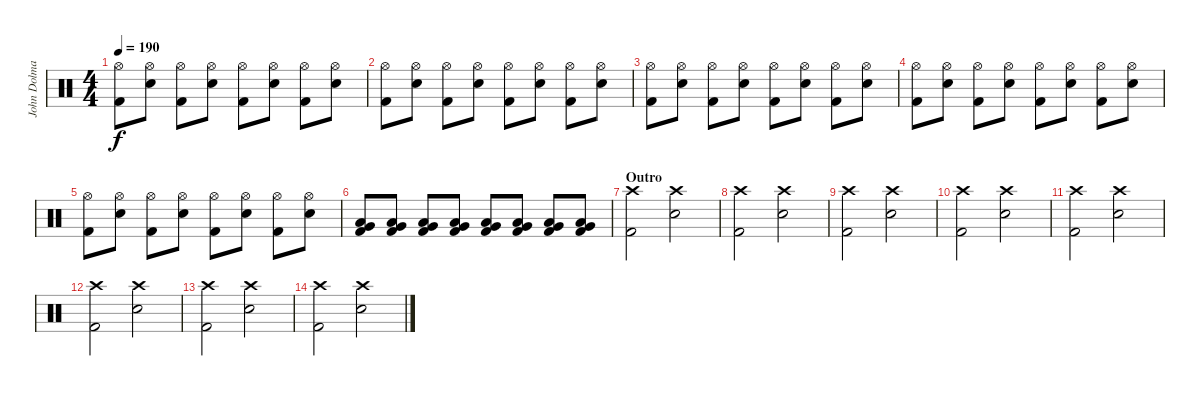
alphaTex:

\track ("John Dolmayan" "John Dolma") {instrument percussion}
\staff {score}
\articulation defaults
\ts (4 4)
\tempo 190
\clef neutral
\ks c
("Hi-Hat (open)" "Kick (hit) 2").8{dy f} ("Hi-Hat (open)" "Electric Snare (hit)").8 ("Hi-Hat (open)" "Kick (hit) 2").8 ("Hi-Hat (open)" "Electric Snare (hit)").8 ("Hi-Hat (open)" "Kick (hit) 2").8 ("Hi-Hat (open)" "Electric Snare (hit)").8 ("Hi-Hat (open)" "Kick (hit) 2").8 ("Hi-Hat (open)" "Electric Snare (hit)").8 |
("Hi-Hat (open)" "Kick (hit) 2").8 ("Hi-Hat (open)" "Electric Snare (hit)").8 ("Hi-Hat (open)" "Kick (hit) 2").8 ("Hi-Hat (open)" "Electric Snare (hit)").8 ("Hi-Hat (open)" "Kick (hit) 2").8 ("Hi-Hat (open)" "Electric Snare (hit)").8 ("Hi-Hat (open)" "Kick (hit) 2").8 ("Hi-Hat (open)" "Electric Snare (hit)").8 |
("Hi-Hat (open)" "Kick (hit) 2").8 ("Hi-Hat (open)" "Electric Snare (hit)").8 ("Hi-Hat (open)" "Kick (hit) 2").8 ("Hi-Hat (open)" "Electric Snare (hit)").8 ("Hi-Hat (open)" "Kick (hit) 2").8 ("Hi-Hat (open)" "Electric Snare (hit)").8 ("Hi-Hat (open)" "Kick (hit) 2").8 ("Hi-Hat (open)" "Electric Snare (hit)").8 |
("Hi-Hat (open)" "Kick (hit) 2").8 ("Hi-Hat (open)" "Electric Snare (hit)").8 ("Hi-Hat (open)" "Kick (hit) 2").8 ("Hi-Hat (open)" "Electric Snare (hit)").8 ("Hi-Hat (open)" "Kick (hit) 2").8 ("Hi-Hat (open)" "Electric Snare (hit)").8 ("Hi-Hat (open)" "Kick (hit) 2").8 ("Hi-Hat (open)" "Electric Snare (hit)").8 |
("Hi-Hat (open)" "Kick (hit) 2").8 ("Hi-Hat (open)" "Electric Snare (hit)").8 ("Hi-Hat (open)" "Kick (hit) 2").8 ("Hi-Hat (open)" "Electric Snare (hit)").8 ("Hi-Hat (open)" "Kick (hit) 2").8 ("Hi-Hat (open)" "Electric Snare (hit)").8 ("Hi-Hat (open)" "Kick (hit) 2").8 ("Hi-Hat (open)" "Electric Snare (hit)").8 |
("Very Low Tom (hit)" "Low Tom (hit)" "Kick (hit) 2").8 ("Very Low Tom (hit)" "Low Tom (hit)" "Kick (hit) 2").8 ("Very Low Tom (hit)" "Low Tom (hit)" "Kick (hit) 2").8 ("Very Low Tom (hit)" "Low Tom (hit)" "Kick (hit) 2").8 ("Very Low Tom (hit)" "Low Tom (hit)" "Kick (hit) 2").8 ("Very Low Tom (hit)" "Low Tom (hit)" "Kick (hit) 2").8 ("Very Low Tom (hit)" "Low Tom (hit)" "Kick (hit) 2").8 ("Very Low Tom (hit)" "Low Tom (hit)" "Kick (hit) 2").8 |
\section ("" "Outro")
("Crash high (hit)" "Kick (hit) 2").2 ("Crash high (hit)" "Electric Snare (hit)").2 |
("Crash high (hit)" "Kick (hit) 2").2 ("Crash high (hit)" "Electric Snare (hit)").2 |
("Crash high (hit)" "Kick (hit) 2").2 ("Crash high (hit)" "Electric Snare (hit)").2 |
("Crash high (hit)" "Kick (hit) 2").2 ("Crash high (hit)" "Electric Snare (hit)").2 |
("Crash high (hit)" "Kick (hit) 2").2 ("Crash high (hit)" "Electric Snare (hit)").2 |
("Crash high (hit)" "Kick (hit) 2").2 ("Crash high (hit)" "Electric Snare (hit)").2 |
("Crash high (hit)" "Kick (hit) 2").2 ("Crash high (hit)" "Electric Snare (hit)").2 |
("Crash high (hit)" "Kick (hit) 2").2 ("Crash high (hit)" "Electric Snare (hit)").2
